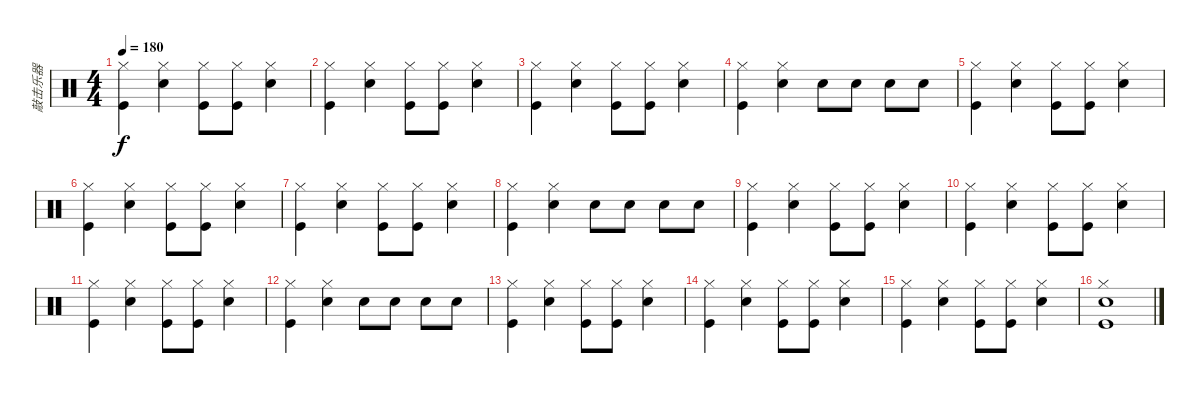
\track ("敲击乐器" "敲击乐器") {instrument percussion}
\staff {score}
\articulation defaults
\ts (4 4)
\tempo 180
\clef neutral
\ks c
("Hi-Hat (closed)" "Kick (hit)").4{dy f} ("Hi-Hat (closed)" "Electric Snare (hit)").4 ("Hi-Hat (closed)" "Kick (hit)").8 ("Hi-Hat (closed)" "Kick (hit)").8 ("Hi-Hat (closed)" "Electric Snare (hit)").4 |
("Hi-Hat (closed)" "Kick (hit)").4 ("Hi-Hat (closed)" "Electric Snare (hit)").4 ("Hi-Hat (closed)" "Kick (hit)").8 ("Hi-Hat (closed)" "Kick (hit)").8 ("Hi-Hat (closed)" "Electric Snare (hit)").4 |
("Hi-Hat (closed)" "Kick (hit)").4 ("Hi-Hat (closed)" "Electric Snare (hit)").4 ("Hi-Hat (closed)" "Kick (hit)").8 ("Hi-Hat (closed)" "Kick (hit)").8 ("Hi-Hat (closed)" "Electric Snare (hit)").4 |
("Hi-Hat (closed)" "Kick (hit)").4 ("Hi-Hat (closed)" "Electric Snare (hit)").4 "Electric Snare (hit)".8 "Electric Snare (hit)".8 "Electric Snare (hit)".8 "Electric Snare (hit)".8 |
("Hi-Hat (closed)" "Kick (hit)").4 ("Hi-Hat (closed)" "Electric Snare (hit)").4 ("Hi-Hat (closed)" "Kick (hit)").8 ("Hi-Hat (closed)" "Kick (hit)").8 ("Hi-Hat (closed)" "Electric Snare (hit)").4 |
("Hi-Hat (closed)" "Kick (hit)").4 ("Hi-Hat (closed)" "Electric Snare (hit)").4 ("Hi-Hat (closed)" "Kick (hit)").8 ("Hi-Hat (closed)" "Kick (hit)").8 ("Hi-Hat (closed)" "Electric Snare (hit)").4 |
("Hi-Hat (closed)" "Kick (hit)").4 ("Hi-Hat (closed)" "Electric Snare (hit)").4 ("Hi-Hat (closed)" "Kick (hit)").8 ("Hi-Hat (closed)" "Kick (hit)").8 ("Hi-Hat (closed)" "Electric Snare (hit)").4 |
("Hi-Hat (closed)" "Kick (hit)").4 ("Hi-Hat (closed)" "Electric Snare (hit)").4 "Electric Snare (hit)".8 "Electric Snare (hit)".8 "Electric Snare (hit)".8 "Electric Snare (hit)".8 |
("Hi-Hat (closed)" "Kick (hit)").4 ("Hi-Hat (closed)" "Electric Snare (hit)").4 ("Hi-Hat (closed)" "Kick (hit)").8 ("Hi-Hat (closed)" "Kick (hit)").8 ("Hi-Hat (closed)" "Electric Snare (hit)").4 |
("Hi-Hat (closed)" "Kick (hit)").4 ("Hi-Hat (closed)" "Electric Snare (hit)").4 ("Hi-Hat (closed)" "Kick (hit)").8 ("Hi-Hat (closed)" "Kick (hit)").8 ("Hi-Hat (closed)" "Electric Snare (hit)").4 |
("Hi-Hat (closed)" "Kick (hit)").4 ("Hi-Hat (closed)" "Electric Snare (hit)").4 ("Hi-Hat (closed)" "Kick (hit)").8 ("Hi-Hat (closed)" "Kick (hit)").8 ("Hi-Hat (closed)" "Electric Snare (hit)").4 |
("Hi-Hat (closed)" "Kick (hit)").4 ("Hi-Hat (closed)" "Electric Snare (hit)").4 "Electric Snare (hit)".8 "Electric Snare (hit)".8 "Electric Snare (hit)".8 "Electric Snare (hit)".8 |
("Hi-Hat (closed)" "Kick (hit)").4{volume 3} ("Hi-Hat (closed)" "Electric Snare (hit)").4 ("Hi-Hat (closed)" "Kick (hit)").8 ("Hi-Hat (closed)" "Kick (hit)").8 ("Hi-Hat (closed)" "Electric Snare (hit)").4 |
("Hi-Hat (closed)" "Kick (hit)").4 ("Hi-Hat (closed)" "Electric Snare (hit)").4 ("Hi-Hat (closed)" "Kick (hit)").8 ("Hi-Hat (closed)" "Kick (hit)").8 ("Hi-Hat (closed)" "Electric Snare (hit)").4 |
("Hi-Hat (closed)" "Kick (hit)").4 ("Hi-Hat (closed)" "Electric Snare (hit)").4 ("Hi-Hat (closed)" "Kick (hit)").8 ("Hi-Hat (closed)" "Kick (hit)").8 ("Hi-Hat (closed)" "Electric Snare (hit)").4 |
("Hi-Hat (closed)" "Electric Snare (hit)" "Kick (hit)").1
